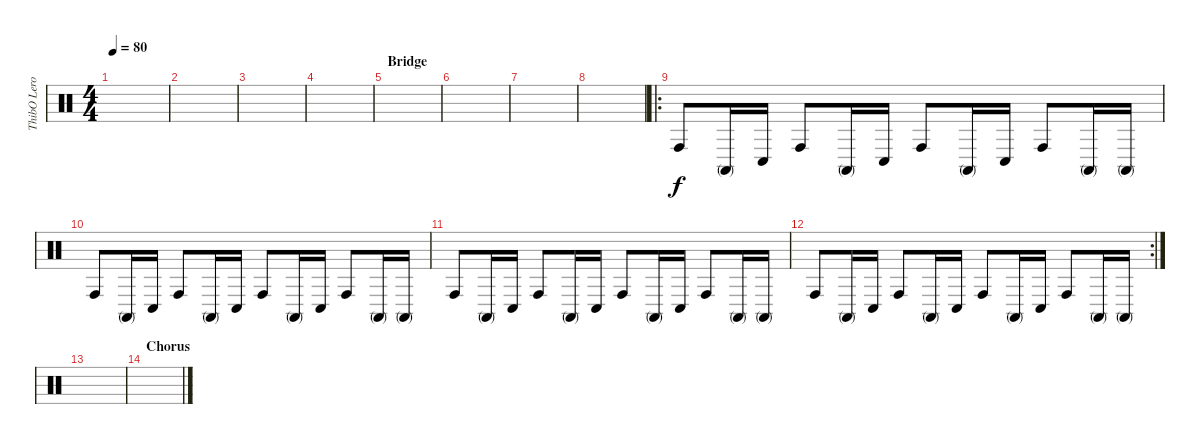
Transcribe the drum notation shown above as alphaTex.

\track ("ThibO LeroY" "ThibO Lero") {instrument percussion}
\staff {score}
\articulation defaults
\ts (4 4)
\tempo 80
\clef neutral
\ks c
|
|
|
|
\section ("" "Bridge")
|
|
|
|
\ro "Conga high (hit)".8 "Conga high (mute)".16 "Conga low (hit)".16 "Conga high (hit)".8 "Conga high (mute)".16 "Conga low (hit)".16 "Conga high (hit)".8 "Conga high (mute)".16 "Conga low (hit)".16 "Conga high (hit)".8 "Conga high (mute)".16 "Conga high (mute)".16
|
"Conga high (hit)".8 "Conga high (mute)".16 "Conga low (hit)".16 "Conga high (hit)".8 "Conga high (mute)".16 "Conga low (hit)".16 "Conga high (hit)".8 "Conga high (mute)".16 "Conga low (hit)".16 "Conga high (hit)".8 "Conga high (mute)".16 "Conga high (mute)".16 |
"Conga high (hit)".8 "Conga high (mute)".16 "Conga low (hit)".16 "Conga high (hit)".8 "Conga high (mute)".16 "Conga low (hit)".16 "Conga high (hit)".8 "Conga high (mute)".16 "Conga low (hit)".16 "Conga high (hit)".8 "Conga high (mute)".16 "Conga high (mute)".16 |
\rc 2 "Conga high (hit)".8 "Conga high (mute)".16 "Conga low (hit)".16 "Conga high (hit)".8 "Conga high (mute)".16 "Conga low (hit)".16 "Conga high (hit)".8 "Conga high (mute)".16 "Conga low (hit)".16 "Conga high (hit)".8 "Conga high (mute)".16 "Conga high (mute)".16
|
|
\section ("" "Chorus")
